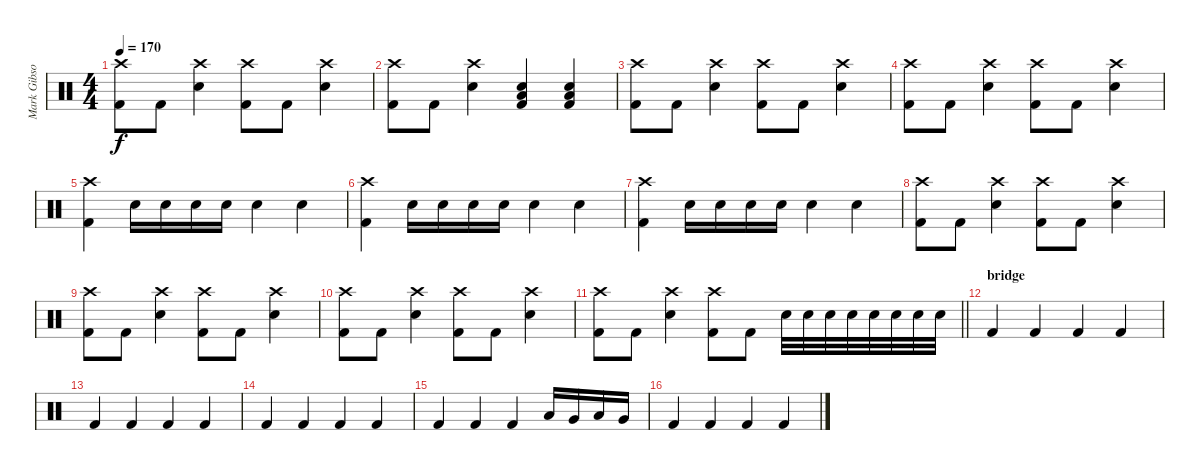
\track ("Mark Gibson" "Mark Gibso") {instrument percussion}
\staff {score}
\articulation defaults
\ts (4 4)
\tempo 170
\clef neutral
\ks c
("Crash high (hit)" "Kick (hit) 2").8{dy f} "Kick (hit) 2".8 ("Crash high (hit)" "Electric Snare (hit)").4 ("Crash high (hit)" "Kick (hit) 2").8 "Kick (hit) 2".8 ("Crash high (hit)" "Electric Snare (hit)").4 |
("Crash high (hit)" "Kick (hit) 2").8 "Kick (hit) 2".8 ("Crash high (hit)" "Electric Snare (hit)").4 ("Electric Snare (hit)" "Low Floor Tom (hit)" "Kick (hit) 2").4 ("Electric Snare (hit)" "Low Floor Tom (hit)" "Kick (hit) 2").4 |
("Crash high (hit)" "Kick (hit) 2").8 "Kick (hit) 2".8 ("Crash high (hit)" "Electric Snare (hit)").4 ("Crash high (hit)" "Kick (hit) 2").8 "Kick (hit) 2".8 ("Crash high (hit)" "Electric Snare (hit)").4 |
("Crash high (hit)" "Kick (hit) 2").8 "Kick (hit) 2".8 ("Crash high (hit)" "Electric Snare (hit)").4 ("Crash high (hit)" "Kick (hit) 2").8 "Kick (hit) 2".8 ("Crash high (hit)" "Electric Snare (hit)").4 |
("Crash high (hit)" "Kick (hit) 2").4 "Electric Snare (hit)".16 "Electric Snare (hit)".16 "Electric Snare (hit)".16 "Electric Snare (hit)".16 "Electric Snare (hit)".4 "Electric Snare (hit)".4 |
("Crash high (hit)" "Kick (hit) 2").4 "Electric Snare (hit)".16 "Electric Snare (hit)".16 "Electric Snare (hit)".16 "Electric Snare (hit)".16 "Electric Snare (hit)".4 "Electric Snare (hit)".4 |
("Crash high (hit)" "Kick (hit) 2").4 "Electric Snare (hit)".16 "Electric Snare (hit)".16 "Electric Snare (hit)".16 "Electric Snare (hit)".16 "Electric Snare (hit)".4 "Electric Snare (hit)".4 |
("Crash high (hit)" "Kick (hit) 2").8 "Kick (hit) 2".8 ("Crash high (hit)" "Electric Snare (hit)").4 ("Crash high (hit)" "Kick (hit) 2").8 "Kick (hit) 2".8 ("Crash high (hit)" "Electric Snare (hit)").4 |
("Crash high (hit)" "Kick (hit) 2").8 "Kick (hit) 2".8 ("Crash high (hit)" "Electric Snare (hit)").4 ("Crash high (hit)" "Kick (hit) 2").8 "Kick (hit) 2".8 ("Crash high (hit)" "Electric Snare (hit)").4 |
("Crash high (hit)" "Kick (hit) 2").8 "Kick (hit) 2".8 ("Crash high (hit)" "Electric Snare (hit)").4 ("Crash high (hit)" "Kick (hit) 2").8 "Kick (hit) 2".8 ("Crash high (hit)" "Electric Snare (hit)").4 |
\barLineRight lightlight
("Crash high (hit)" "Kick (hit) 2").8 "Kick (hit) 2".8 ("Crash high (hit)" "Electric Snare (hit)").4 ("Crash high (hit)" "Kick (hit) 2").8 "Kick (hit) 2".8 "Electric Snare (hit)".32 "Electric Snare (hit)".32 "Electric Snare (hit)".32 "Electric Snare (hit)".32 "Electric Snare (hit)".32 "Electric Snare (hit)".32 "Electric Snare (hit)".32 "Electric Snare (hit)".32 |
\section ("" "bridge")
"Kick (hit) 2".4 "Kick (hit) 2".4 "Kick (hit) 2".4 "Kick (hit) 2".4 |
"Kick (hit) 2".4 "Kick (hit) 2".4 "Kick (hit) 2".4 "Kick (hit) 2".4 |
"Kick (hit) 2".4 "Kick (hit) 2".4 "Kick (hit) 2".4 "Kick (hit) 2".4 |
"Kick (hit) 2".4 "Kick (hit) 2".4 "Kick (hit) 2".4 "Low Tom (hit)".16 "Very Low Tom (hit)".16 "Low Tom (hit)".16 "Very Low Tom (hit)".16 |
"Kick (hit) 2".4 "Kick (hit) 2".4 "Kick (hit) 2".4 "Kick (hit) 2".4
